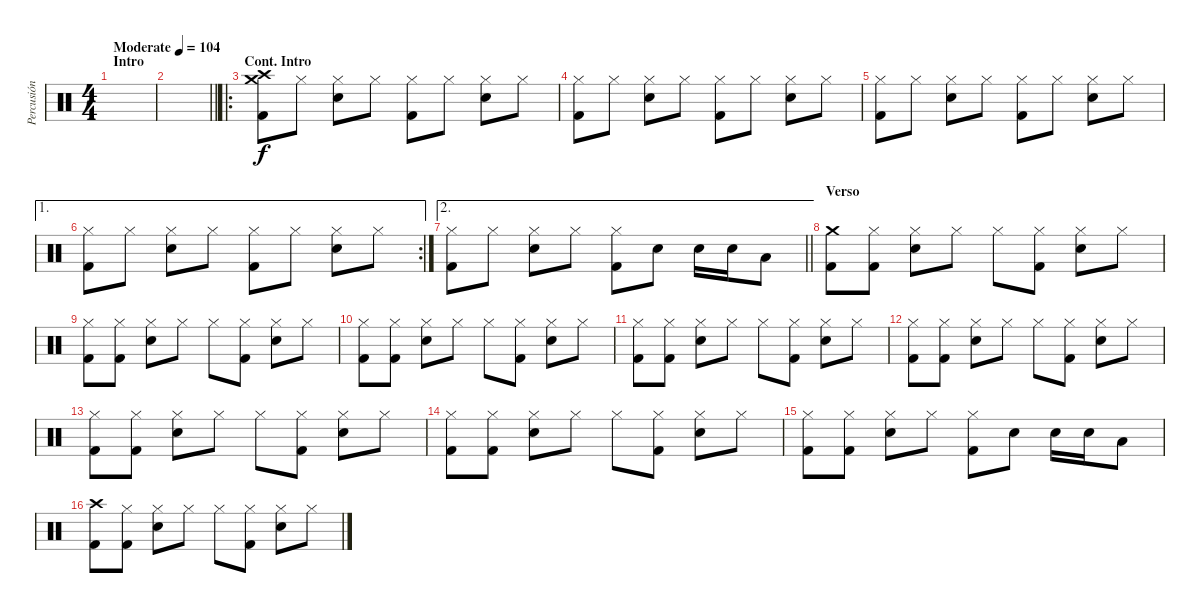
\track ("Percusión" "Percusión") {instrument percussion}
\staff {score}
\articulation defaults
\ts (4 4)
\section ("" "Intro")
\tempo (104 "Moderate")
\clef neutral
\ks c
|
\barLineRight lightlight
|
\ro
\section ("" "Cont. Intro")
("Crash medium (hit)" "Crash high (hit)" "Kick (hit) 2").8 "Hi-Hat (closed)".8 ("Hi-Hat (closed)" "Snare (hit) 2").8 "Hi-Hat (closed)".8 ("Hi-Hat (closed)" "Kick (hit) 2").8 "Hi-Hat (closed)".8 ("Hi-Hat (closed)" "Snare (hit) 2").8 "Hi-Hat (closed)".8 |
("Hi-Hat (closed)" "Kick (hit) 2").8 "Hi-Hat (closed)".8 ("Hi-Hat (closed)" "Snare (hit) 2").8 "Hi-Hat (closed)".8 ("Hi-Hat (closed)" "Kick (hit) 2").8 "Hi-Hat (closed)".8 ("Hi-Hat (closed)" "Snare (hit) 2").8 "Hi-Hat (closed)".8 |
("Hi-Hat (closed)" "Kick (hit) 2").8 "Hi-Hat (closed)".8 ("Hi-Hat (closed)" "Snare (hit) 2").8 "Hi-Hat (closed)".8 ("Hi-Hat (closed)" "Kick (hit) 2").8 "Hi-Hat (closed)".8 ("Hi-Hat (closed)" "Snare (hit) 2").8 "Hi-Hat (closed)".8 |
\ae 1
\rc 2
("Hi-Hat (closed)" "Kick (hit) 2").8 "Hi-Hat (closed)".8 ("Hi-Hat (closed)" "Snare (hit) 2").8 "Hi-Hat (closed)".8 ("Hi-Hat (closed)" "Kick (hit) 2").8 "Hi-Hat (closed)".8 ("Hi-Hat (closed)" "Snare (hit) 2").8 "Hi-Hat (closed)".8 |
\ae 2
\barLineRight lightlight
("Hi-Hat (closed)" "Kick (hit) 2").8 "Hi-Hat (closed)".8 ("Hi-Hat (closed)" "Snare (hit) 2").8 "Hi-Hat (closed)".8 ("Hi-Hat (closed)" "Kick (hit) 2").8 "Snare (hit) 2".8 "Snare (hit) 2".16 "Snare (hit) 2".16 "Low Tom (hit)".8 |
\section ("" "Verso")
("Crash medium (hit)" "Kick (hit) 2").8 ("Hi-Hat (closed)" "Kick (hit) 2").8 ("Hi-Hat (closed)" "Snare (hit) 2").8 "Hi-Hat (closed)".8 "Hi-Hat (closed)".8 ("Hi-Hat (closed)" "Kick (hit) 2").8 ("Hi-Hat (closed)" "Snare (hit) 2").8 "Hi-Hat (closed)".8 |
("Hi-Hat (closed)" "Kick (hit) 2").8 ("Hi-Hat (closed)" "Kick (hit) 2").8 ("Hi-Hat (closed)" "Snare (hit) 2").8 "Hi-Hat (closed)".8 "Hi-Hat (closed)".8 ("Hi-Hat (closed)" "Kick (hit) 2").8 ("Hi-Hat (closed)" "Snare (hit) 2").8 "Hi-Hat (closed)".8 |
("Hi-Hat (closed)" "Kick (hit) 2").8 ("Hi-Hat (closed)" "Kick (hit) 2").8 ("Hi-Hat (closed)" "Snare (hit) 2").8 "Hi-Hat (closed)".8 "Hi-Hat (closed)".8 ("Hi-Hat (closed)" "Kick (hit) 2").8 ("Hi-Hat (closed)" "Snare (hit) 2").8 "Hi-Hat (closed)".8 |
("Hi-Hat (closed)" "Kick (hit) 2").8 ("Hi-Hat (closed)" "Kick (hit) 2").8 ("Hi-Hat (closed)" "Snare (hit) 2").8 "Hi-Hat (closed)".8 "Hi-Hat (closed)".8 ("Hi-Hat (closed)" "Kick (hit) 2").8 ("Hi-Hat (closed)" "Snare (hit) 2").8 "Hi-Hat (closed)".8 |
("Hi-Hat (closed)" "Kick (hit) 2").8 ("Hi-Hat (closed)" "Kick (hit) 2").8 ("Hi-Hat (closed)" "Snare (hit) 2").8 "Hi-Hat (closed)".8 "Hi-Hat (closed)".8 ("Hi-Hat (closed)" "Kick (hit) 2").8 ("Hi-Hat (closed)" "Snare (hit) 2").8 "Hi-Hat (closed)".8 |
("Hi-Hat (closed)" "Kick (hit) 2").8 ("Hi-Hat (closed)" "Kick (hit) 2").8 ("Hi-Hat (closed)" "Snare (hit) 2").8 "Hi-Hat (closed)".8 "Hi-Hat (closed)".8 ("Hi-Hat (closed)" "Kick (hit) 2").8 ("Hi-Hat (closed)" "Snare (hit) 2").8 "Hi-Hat (closed)".8 |
("Hi-Hat (closed)" "Kick (hit) 2").8 ("Hi-Hat (closed)" "Kick (hit) 2").8 ("Hi-Hat (closed)" "Snare (hit) 2").8 "Hi-Hat (closed)".8 "Hi-Hat (closed)".8 ("Hi-Hat (closed)" "Kick (hit) 2").8 ("Hi-Hat (closed)" "Snare (hit) 2").8 "Hi-Hat (closed)".8 |
("Hi-Hat (closed)" "Kick (hit) 2").8 ("Hi-Hat (closed)" "Kick (hit) 2").8 ("Hi-Hat (closed)" "Snare (hit) 2").8 "Hi-Hat (closed)".8 ("Hi-Hat (closed)" "Kick (hit) 2").8 "Snare (hit) 2".8 "Snare (hit) 2".16 "Snare (hit) 2".16 "Low Tom (hit)".8 |
("Crash high (hit)" "Kick (hit) 2").8 ("Hi-Hat (closed)" "Kick (hit) 2").8 ("Hi-Hat (closed)" "Snare (hit) 2").8 "Hi-Hat (closed)".8 "Hi-Hat (closed)".8 ("Hi-Hat (closed)" "Kick (hit) 2").8 ("Hi-Hat (closed)" "Snare (hit) 2").8 "Hi-Hat (closed)".8
